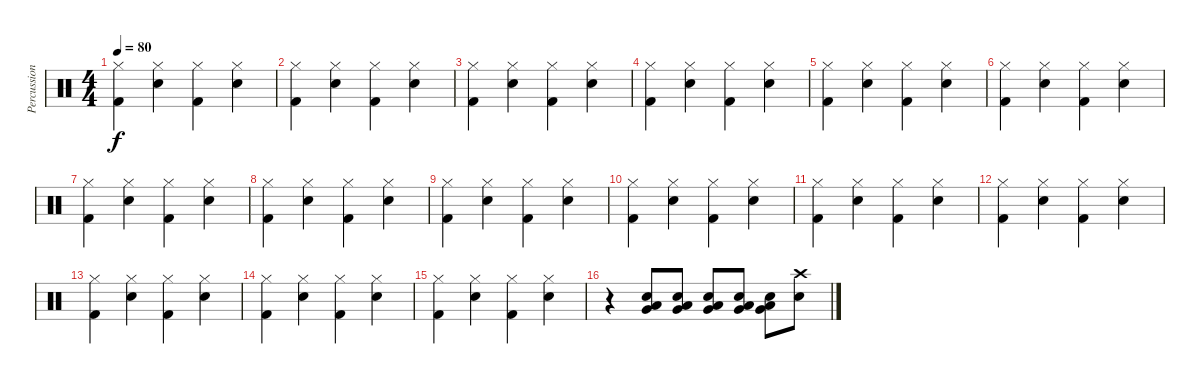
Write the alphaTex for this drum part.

\track ("Percussion" "Percussion") {instrument percussion}
\staff {score}
\articulation defaults
\ts (4 4)
\tempo 80
\clef neutral
\ks c
("Hi-Hat (closed)" "Kick (hit) 2").4{dy f} ("Hi-Hat (closed)" "Electric Snare (hit)").4 ("Hi-Hat (closed)" "Kick (hit) 2").4 ("Hi-Hat (closed)" "Electric Snare (hit)").4 |
("Hi-Hat (closed)" "Kick (hit) 2").4 ("Hi-Hat (closed)" "Electric Snare (hit)").4 ("Hi-Hat (closed)" "Kick (hit) 2").4 ("Hi-Hat (closed)" "Electric Snare (hit)").4 |
("Hi-Hat (closed)" "Kick (hit) 2").4 ("Hi-Hat (closed)" "Electric Snare (hit)").4 ("Hi-Hat (closed)" "Kick (hit) 2").4 ("Hi-Hat (closed)" "Electric Snare (hit)").4 |
("Hi-Hat (closed)" "Kick (hit) 2").4 ("Hi-Hat (closed)" "Electric Snare (hit)").4 ("Hi-Hat (closed)" "Kick (hit) 2").4 ("Hi-Hat (closed)" "Electric Snare (hit)").4 |
("Hi-Hat (closed)" "Kick (hit) 2").4 ("Hi-Hat (closed)" "Electric Snare (hit)").4 ("Hi-Hat (closed)" "Kick (hit) 2").4 ("Hi-Hat (closed)" "Electric Snare (hit)").4 |
("Hi-Hat (closed)" "Kick (hit) 2").4 ("Hi-Hat (closed)" "Electric Snare (hit)").4 ("Hi-Hat (closed)" "Kick (hit) 2").4 ("Hi-Hat (closed)" "Electric Snare (hit)").4 |
("Hi-Hat (closed)" "Kick (hit) 2").4 ("Hi-Hat (closed)" "Electric Snare (hit)").4 ("Hi-Hat (closed)" "Kick (hit) 2").4 ("Hi-Hat (closed)" "Electric Snare (hit)").4 |
("Hi-Hat (closed)" "Kick (hit) 2").4 ("Hi-Hat (closed)" "Electric Snare (hit)").4 ("Hi-Hat (closed)" "Kick (hit) 2").4 ("Hi-Hat (closed)" "Electric Snare (hit)").4 |
("Hi-Hat (closed)" "Kick (hit) 2").4 ("Hi-Hat (closed)" "Electric Snare (hit)").4 ("Hi-Hat (closed)" "Kick (hit) 2").4 ("Hi-Hat (closed)" "Electric Snare (hit)").4 |
("Hi-Hat (closed)" "Kick (hit) 2").4 ("Hi-Hat (closed)" "Electric Snare (hit)").4 ("Hi-Hat (closed)" "Kick (hit) 2").4 ("Hi-Hat (closed)" "Electric Snare (hit)").4 |
("Hi-Hat (closed)" "Kick (hit) 2").4 ("Hi-Hat (closed)" "Electric Snare (hit)").4 ("Hi-Hat (closed)" "Kick (hit) 2").4 ("Hi-Hat (closed)" "Electric Snare (hit)").4 |
("Hi-Hat (closed)" "Kick (hit) 2").4 ("Hi-Hat (closed)" "Electric Snare (hit)").4 ("Hi-Hat (closed)" "Kick (hit) 2").4 ("Hi-Hat (closed)" "Electric Snare (hit)").4 |
("Hi-Hat (closed)" "Kick (hit) 2").4 ("Hi-Hat (closed)" "Electric Snare (hit)").4 ("Hi-Hat (closed)" "Kick (hit) 2").4 ("Hi-Hat (closed)" "Electric Snare (hit)").4 |
("Hi-Hat (closed)" "Kick (hit) 2").4 ("Hi-Hat (closed)" "Electric Snare (hit)").4 ("Hi-Hat (closed)" "Kick (hit) 2").4 ("Hi-Hat (closed)" "Electric Snare (hit)").4 |
("Hi-Hat (closed)" "Kick (hit) 2").4 ("Hi-Hat (closed)" "Electric Snare (hit)").4 ("Hi-Hat (closed)" "Kick (hit) 2").4 ("Hi-Hat (closed)" "Electric Snare (hit)").4 |
r.4 ("Low Tom (hit)" "Very Low Tom (hit)" "Electric Snare (hit)").8 ("Low Tom (hit)" "Very Low Tom (hit)" "Electric Snare (hit)").8 ("Low Tom (hit)" "Very Low Tom (hit)" "Electric Snare (hit)").8 ("Low Tom (hit)" "Very Low Tom (hit)" "Electric Snare (hit)").8 ("Low Tom (hit)" "Very Low Tom (hit)" "Electric Snare (hit)").8 ("Crash high (hit)" "Electric Snare (hit)").8
